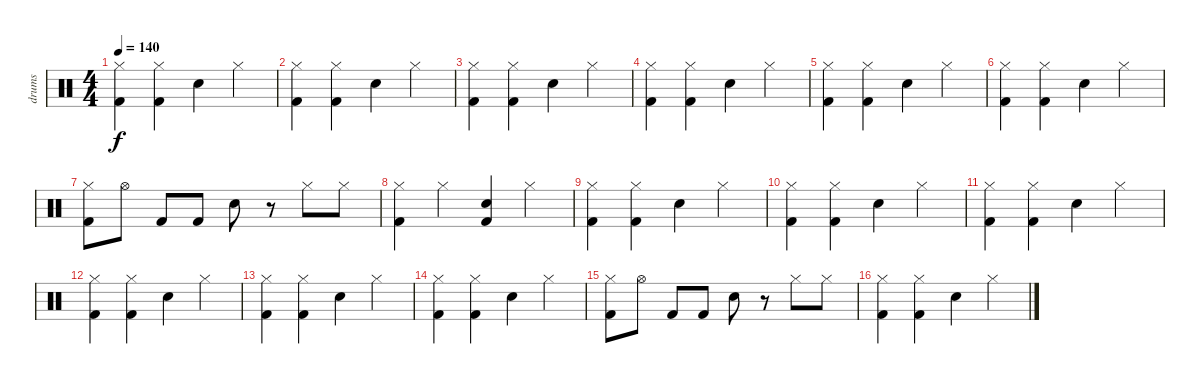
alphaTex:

\track ("drums" "drums") {instrument percussion}
\staff {score}
\articulation defaults
\ts (4 4)
\tempo 140
\clef neutral
\ks c
("Hi-Hat (closed)" "Kick (hit) 2").4{dy f} ("Hi-Hat (closed)" "Kick (hit) 2").4 "Snare (hit) 2".4 "Hi-Hat (closed)".4 |
("Hi-Hat (closed)" "Kick (hit) 2").4 ("Hi-Hat (closed)" "Kick (hit) 2").4 "Snare (hit) 2".4 "Hi-Hat (closed)".4 |
("Hi-Hat (closed)" "Kick (hit) 2").4 ("Hi-Hat (closed)" "Kick (hit) 2").4 "Snare (hit) 2".4 "Hi-Hat (closed)".4 |
("Hi-Hat (closed)" "Kick (hit) 2").4 ("Hi-Hat (closed)" "Kick (hit) 2").4 "Snare (hit) 2".4 "Hi-Hat (closed)".4 |
("Hi-Hat (closed)" "Kick (hit) 2").4 ("Hi-Hat (closed)" "Kick (hit) 2").4 "Snare (hit) 2".4 "Hi-Hat (closed)".4 |
("Hi-Hat (closed)" "Kick (hit) 2").4 ("Hi-Hat (closed)" "Kick (hit) 2").4 "Snare (hit) 2".4 "Hi-Hat (closed)".4 |
("Hi-Hat (closed)" "Kick (hit) 2").8 "Hi-Hat (open)".8 "Kick (hit) 2".8 "Kick (hit) 2".8 "Snare (hit) 2".8 r.8 "Hi-Hat (closed)".8 "Hi-Hat (closed)".8 |
("Hi-Hat (closed)" "Kick (hit) 2").4 "Hi-Hat (closed)".4 ("Snare (hit) 2" "Kick (hit) 2").4 "Hi-Hat (closed)".4 |
("Hi-Hat (closed)" "Kick (hit) 2").4 ("Hi-Hat (closed)" "Kick (hit) 2").4 "Snare (hit) 2".4 "Hi-Hat (closed)".4 |
("Hi-Hat (closed)" "Kick (hit) 2").4 ("Hi-Hat (closed)" "Kick (hit) 2").4 "Snare (hit) 2".4 "Hi-Hat (closed)".4 |
("Hi-Hat (closed)" "Kick (hit) 2").4 ("Hi-Hat (closed)" "Kick (hit) 2").4 "Snare (hit) 2".4 "Hi-Hat (closed)".4 |
("Hi-Hat (closed)" "Kick (hit) 2").4 ("Hi-Hat (closed)" "Kick (hit) 2").4 "Snare (hit) 2".4 "Hi-Hat (closed)".4 |
("Hi-Hat (closed)" "Kick (hit) 2").4 ("Hi-Hat (closed)" "Kick (hit) 2").4 "Snare (hit) 2".4 "Hi-Hat (closed)".4 |
("Hi-Hat (closed)" "Kick (hit) 2").4 ("Hi-Hat (closed)" "Kick (hit) 2").4 "Snare (hit) 2".4 "Hi-Hat (closed)".4 |
("Hi-Hat (closed)" "Kick (hit) 2").8 "Hi-Hat (open)".8 "Kick (hit) 2".8 "Kick (hit) 2".8 "Snare (hit) 2".8 r.8 "Hi-Hat (closed)".8 "Hi-Hat (closed)".8 |
("Hi-Hat (closed)" "Kick (hit) 2").4 ("Hi-Hat (closed)" "Kick (hit) 2").4 "Snare (hit) 2".4 "Hi-Hat (closed)".4
